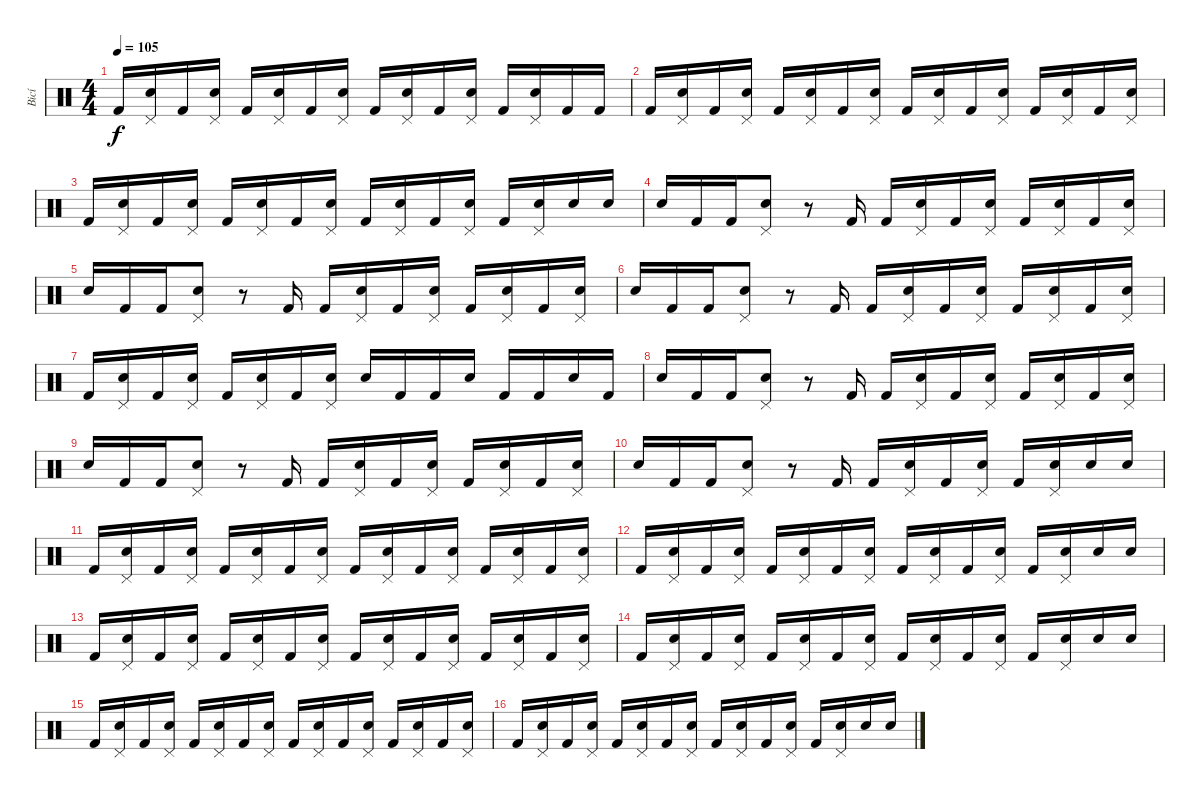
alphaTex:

\track ("Bicí" "Bicí") {instrument percussion}
\staff {score}
\articulation defaults
\ts (4 4)
\tempo 105
\clef neutral
\ks c "Kick (hit) 2".16{dy f}
("Pedal Hi-Hat (hit)" "Snare (hit) 2").16 "Kick (hit) 2".16 ("Pedal Hi-Hat (hit)" "Snare (hit) 2").16 "Kick (hit) 2".16 ("Pedal Hi-Hat (hit)" "Snare (hit) 2").16 "Kick (hit) 2".16 ("Pedal Hi-Hat (hit)" "Snare (hit) 2").16 "Kick (hit) 2".16 ("Pedal Hi-Hat (hit)" "Snare (hit) 2").16 "Kick (hit) 2".16 ("Pedal Hi-Hat (hit)" "Snare (hit) 2").16 "Kick (hit) 2".16 ("Pedal Hi-Hat (hit)" "Snare (hit) 2").16 "Kick (hit) 2".16 "Kick (hit) 2".16 |
"Kick (hit) 2".16 ("Pedal Hi-Hat (hit)" "Snare (hit) 2").16 "Kick (hit) 2".16 ("Pedal Hi-Hat (hit)" "Snare (hit) 2").16 "Kick (hit) 2".16 ("Pedal Hi-Hat (hit)" "Snare (hit) 2").16 "Kick (hit) 2".16 ("Pedal Hi-Hat (hit)" "Snare (hit) 2").16 "Kick (hit) 2".16 ("Pedal Hi-Hat (hit)" "Snare (hit) 2").16 "Kick (hit) 2".16 ("Pedal Hi-Hat (hit)" "Snare (hit) 2").16 "Kick (hit) 2".16 ("Pedal Hi-Hat (hit)" "Snare (hit) 2").16 "Kick (hit) 2".16 ("Pedal Hi-Hat (hit)" "Snare (hit) 2").16 |
"Kick (hit) 2".16 ("Pedal Hi-Hat (hit)" "Snare (hit) 2").16 "Kick (hit) 2".16 ("Pedal Hi-Hat (hit)" "Snare (hit) 2").16 "Kick (hit) 2".16 ("Pedal Hi-Hat (hit)" "Snare (hit) 2").16 "Kick (hit) 2".16 ("Pedal Hi-Hat (hit)" "Snare (hit) 2").16 "Kick (hit) 2".16 ("Pedal Hi-Hat (hit)" "Snare (hit) 2").16 "Kick (hit) 2".16 ("Pedal Hi-Hat (hit)" "Snare (hit) 2").16 "Kick (hit) 2".16 ("Pedal Hi-Hat (hit)" "Snare (hit) 2").16 "Snare (hit) 2".16 "Snare (hit) 2".16 |
"Snare (hit) 2".16 "Kick (hit) 2".16 "Kick (hit) 2".16 ("Pedal Hi-Hat (hit)" "Snare (hit) 2").8 r.8 "Kick (hit) 2".16 "Kick (hit) 2".16 ("Pedal Hi-Hat (hit)" "Snare (hit) 2").16 "Kick (hit) 2".16 ("Pedal Hi-Hat (hit)" "Snare (hit) 2").16 "Kick (hit) 2".16 ("Pedal Hi-Hat (hit)" "Snare (hit) 2").16 "Kick (hit) 2".16 ("Pedal Hi-Hat (hit)" "Snare (hit) 2").16 |
"Snare (hit) 2".16 "Kick (hit) 2".16 "Kick (hit) 2".16 ("Pedal Hi-Hat (hit)" "Snare (hit) 2").8 r.8 "Kick (hit) 2".16 "Kick (hit) 2".16 ("Pedal Hi-Hat (hit)" "Snare (hit) 2").16 "Kick (hit) 2".16 ("Pedal Hi-Hat (hit)" "Snare (hit) 2").16 "Kick (hit) 2".16 ("Pedal Hi-Hat (hit)" "Snare (hit) 2").16 "Kick (hit) 2".16 ("Pedal Hi-Hat (hit)" "Snare (hit) 2").16 |
"Snare (hit) 2".16 "Kick (hit) 2".16 "Kick (hit) 2".16 ("Pedal Hi-Hat (hit)" "Snare (hit) 2").8 r.8 "Kick (hit) 2".16 "Kick (hit) 2".16 ("Pedal Hi-Hat (hit)" "Snare (hit) 2").16 "Kick (hit) 2".16 ("Pedal Hi-Hat (hit)" "Snare (hit) 2").16 "Kick (hit) 2".16 ("Pedal Hi-Hat (hit)" "Snare (hit) 2").16 "Kick (hit) 2".16 ("Pedal Hi-Hat (hit)" "Snare (hit) 2").16 |
"Kick (hit) 2".16 ("Pedal Hi-Hat (hit)" "Snare (hit) 2").16 "Kick (hit) 2".16 ("Pedal Hi-Hat (hit)" "Snare (hit) 2").16 "Kick (hit) 2".16 ("Pedal Hi-Hat (hit)" "Snare (hit) 2").16 "Kick (hit) 2".16 ("Pedal Hi-Hat (hit)" "Snare (hit) 2").16 "Snare (hit) 2".16 "Kick (hit) 2".16 "Kick (hit) 2".16 "Snare (hit) 2".16 "Kick (hit) 2".16 "Kick (hit) 2".16 "Snare (hit) 2".16 "Kick (hit) 2".16 |
"Snare (hit) 2".16 "Kick (hit) 2".16 "Kick (hit) 2".16 ("Pedal Hi-Hat (hit)" "Snare (hit) 2").8 r.8 "Kick (hit) 2".16 "Kick (hit) 2".16 ("Pedal Hi-Hat (hit)" "Snare (hit) 2").16 "Kick (hit) 2".16 ("Pedal Hi-Hat (hit)" "Snare (hit) 2").16 "Kick (hit) 2".16 ("Pedal Hi-Hat (hit)" "Snare (hit) 2").16 "Kick (hit) 2".16 ("Pedal Hi-Hat (hit)" "Snare (hit) 2").16 |
"Snare (hit) 2".16 "Kick (hit) 2".16 "Kick (hit) 2".16 ("Pedal Hi-Hat (hit)" "Snare (hit) 2").8 r.8 "Kick (hit) 2".16 "Kick (hit) 2".16 ("Pedal Hi-Hat (hit)" "Snare (hit) 2").16 "Kick (hit) 2".16 ("Pedal Hi-Hat (hit)" "Snare (hit) 2").16 "Kick (hit) 2".16 ("Pedal Hi-Hat (hit)" "Snare (hit) 2").16 "Kick (hit) 2".16 ("Pedal Hi-Hat (hit)" "Snare (hit) 2").16 |
"Snare (hit) 2".16 "Kick (hit) 2".16 "Kick (hit) 2".16 ("Pedal Hi-Hat (hit)" "Snare (hit) 2").8 r.8 "Kick (hit) 2".16 "Kick (hit) 2".16 ("Pedal Hi-Hat (hit)" "Snare (hit) 2").16 "Kick (hit) 2".16 ("Pedal Hi-Hat (hit)" "Snare (hit) 2").16 "Kick (hit) 2".16 ("Pedal Hi-Hat (hit)" "Snare (hit) 2").16 "Snare (hit) 2".16 "Snare (hit) 2".16 |
"Kick (hit) 2".16 ("Pedal Hi-Hat (hit)" "Snare (hit) 2").16 "Kick (hit) 2".16 ("Pedal Hi-Hat (hit)" "Snare (hit) 2").16 "Kick (hit) 2".16 ("Pedal Hi-Hat (hit)" "Snare (hit) 2").16 "Kick (hit) 2".16 ("Pedal Hi-Hat (hit)" "Snare (hit) 2").16 "Kick (hit) 2".16 ("Pedal Hi-Hat (hit)" "Snare (hit) 2").16 "Kick (hit) 2".16 ("Pedal Hi-Hat (hit)" "Snare (hit) 2").16 "Kick (hit) 2".16 ("Pedal Hi-Hat (hit)" "Snare (hit) 2").16 "Kick (hit) 2".16 ("Pedal Hi-Hat (hit)" "Snare (hit) 2").16 |
"Kick (hit) 2".16 ("Pedal Hi-Hat (hit)" "Snare (hit) 2").16 "Kick (hit) 2".16 ("Pedal Hi-Hat (hit)" "Snare (hit) 2").16 "Kick (hit) 2".16 ("Pedal Hi-Hat (hit)" "Snare (hit) 2").16 "Kick (hit) 2".16 ("Pedal Hi-Hat (hit)" "Snare (hit) 2").16 "Kick (hit) 2".16 ("Pedal Hi-Hat (hit)" "Snare (hit) 2").16 "Kick (hit) 2".16 ("Pedal Hi-Hat (hit)" "Snare (hit) 2").16 "Kick (hit) 2".16 ("Pedal Hi-Hat (hit)" "Snare (hit) 2").16 "Snare (hit) 2".16 "Snare (hit) 2".16 |
"Kick (hit) 2".16 ("Pedal Hi-Hat (hit)" "Snare (hit) 2").16 "Kick (hit) 2".16 ("Pedal Hi-Hat (hit)" "Snare (hit) 2").16 "Kick (hit) 2".16 ("Pedal Hi-Hat (hit)" "Snare (hit) 2").16 "Kick (hit) 2".16 ("Pedal Hi-Hat (hit)" "Snare (hit) 2").16 "Kick (hit) 2".16 ("Pedal Hi-Hat (hit)" "Snare (hit) 2").16 "Kick (hit) 2".16 ("Pedal Hi-Hat (hit)" "Snare (hit) 2").16 "Kick (hit) 2".16 ("Pedal Hi-Hat (hit)" "Snare (hit) 2").16 "Kick (hit) 2".16 ("Pedal Hi-Hat (hit)" "Snare (hit) 2").16 |
"Kick (hit) 2".16 ("Pedal Hi-Hat (hit)" "Snare (hit) 2").16 "Kick (hit) 2".16 ("Pedal Hi-Hat (hit)" "Snare (hit) 2").16 "Kick (hit) 2".16 ("Pedal Hi-Hat (hit)" "Snare (hit) 2").16 "Kick (hit) 2".16 ("Pedal Hi-Hat (hit)" "Snare (hit) 2").16 "Kick (hit) 2".16 ("Pedal Hi-Hat (hit)" "Snare (hit) 2").16 "Kick (hit) 2".16 ("Pedal Hi-Hat (hit)" "Snare (hit) 2").16 "Kick (hit) 2".16 ("Pedal Hi-Hat (hit)" "Snare (hit) 2").16 "Snare (hit) 2".16 "Snare (hit) 2".16 |
"Kick (hit) 2".16 ("Pedal Hi-Hat (hit)" "Snare (hit) 2").16 "Kick (hit) 2".16 ("Pedal Hi-Hat (hit)" "Snare (hit) 2").16 "Kick (hit) 2".16 ("Pedal Hi-Hat (hit)" "Snare (hit) 2").16 "Kick (hit) 2".16 ("Pedal Hi-Hat (hit)" "Snare (hit) 2").16 "Kick (hit) 2".16 ("Pedal Hi-Hat (hit)" "Snare (hit) 2").16 "Kick (hit) 2".16 ("Pedal Hi-Hat (hit)" "Snare (hit) 2").16 "Kick (hit) 2".16 ("Pedal Hi-Hat (hit)" "Snare (hit) 2").16 "Kick (hit) 2".16 ("Pedal Hi-Hat (hit)" "Snare (hit) 2").16 |
"Kick (hit) 2".16 ("Pedal Hi-Hat (hit)" "Snare (hit) 2").16 "Kick (hit) 2".16 ("Pedal Hi-Hat (hit)" "Snare (hit) 2").16 "Kick (hit) 2".16 ("Pedal Hi-Hat (hit)" "Snare (hit) 2").16 "Kick (hit) 2".16 ("Pedal Hi-Hat (hit)" "Snare (hit) 2").16 "Kick (hit) 2".16 ("Pedal Hi-Hat (hit)" "Snare (hit) 2").16 "Kick (hit) 2".16 ("Pedal Hi-Hat (hit)" "Snare (hit) 2").16 "Kick (hit) 2".16 ("Pedal Hi-Hat (hit)" "Snare (hit) 2").16 "Snare (hit) 2".16 "Snare (hit) 2".16
